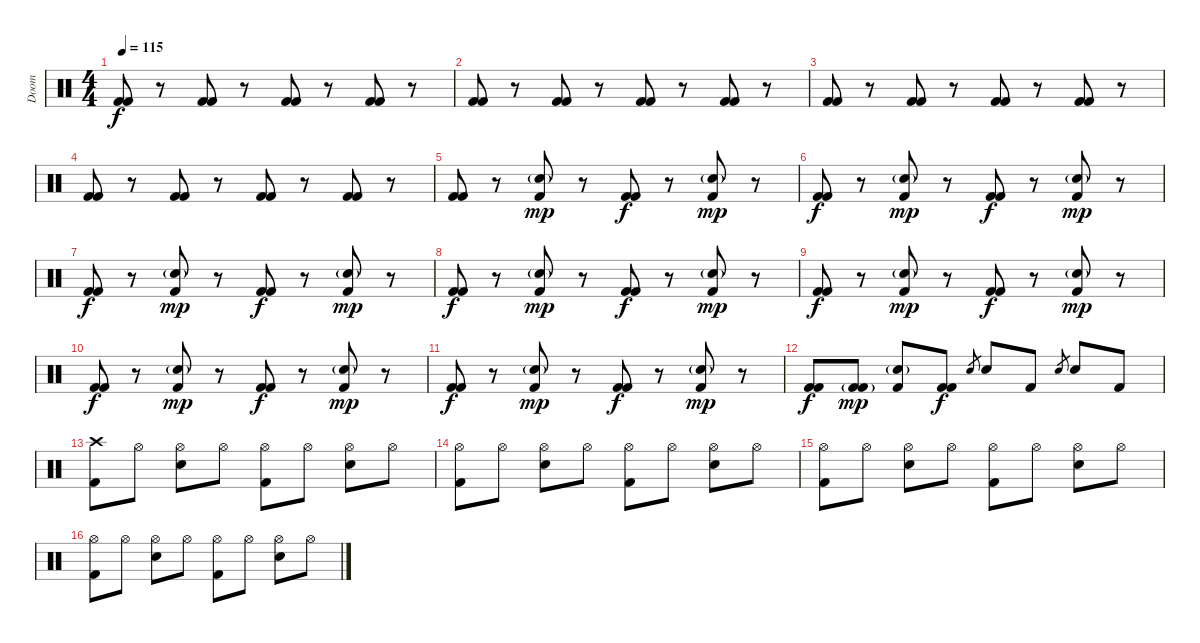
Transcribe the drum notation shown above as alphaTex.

\track ("Doom" "Doom") {instrument percussion}
\staff {score}
\articulation defaults
\ts (4 4)
\tempo 115
\clef neutral
\ks c
("Kick (hit) 2" "Kick (hit) 2").8{dy f} r.8 ("Kick (hit) 2" "Kick (hit) 2").8 r.8 ("Kick (hit) 2" "Kick (hit) 2").8 r.8 ("Kick (hit) 2" "Kick (hit) 2").8 r.8 |
("Kick (hit) 2" "Kick (hit) 2").8 r.8 ("Kick (hit) 2" "Kick (hit) 2").8 r.8 ("Kick (hit) 2" "Kick (hit) 2").8 r.8 ("Kick (hit) 2" "Kick (hit) 2").8 r.8 |
("Kick (hit) 2" "Kick (hit) 2").8 r.8 ("Kick (hit) 2" "Kick (hit) 2").8 r.8 ("Kick (hit) 2" "Kick (hit) 2").8 r.8 ("Kick (hit) 2" "Kick (hit) 2").8 r.8 |
("Kick (hit) 2" "Kick (hit) 2").8 r.8 ("Kick (hit) 2" "Kick (hit) 2").8 r.8 ("Kick (hit) 2" "Kick (hit) 2").8 r.8 ("Kick (hit) 2" "Kick (hit) 2").8 r.8 |
("Kick (hit) 2" "Kick (hit) 2").8 r.8 ("Electric Snare (hit)"{g} "Kick (hit) 2").8{dy mp} r.8 ("Kick (hit) 2" "Kick (hit) 2").8{dy f} r.8 ("Electric Snare (hit)"{g} "Kick (hit) 2").8{dy mp} r.8 |
("Kick (hit) 2" "Kick (hit) 2").8{dy f} r.8 ("Electric Snare (hit)"{g} "Kick (hit) 2").8{dy mp} r.8 ("Kick (hit) 2" "Kick (hit) 2").8{dy f} r.8 ("Electric Snare (hit)"{g} "Kick (hit) 2").8{dy mp} r.8 |
("Kick (hit) 2" "Kick (hit) 2").8{dy f} r.8 ("Electric Snare (hit)"{g} "Kick (hit) 2").8{dy mp} r.8 ("Kick (hit) 2" "Kick (hit) 2").8{dy f} r.8 ("Electric Snare (hit)"{g} "Kick (hit) 2").8{dy mp} r.8 |
("Kick (hit) 2" "Kick (hit) 2").8{dy f} r.8 ("Electric Snare (hit)"{g} "Kick (hit) 2").8{dy mp} r.8 ("Kick (hit) 2" "Kick (hit) 2").8{dy f} r.8 ("Electric Snare (hit)"{g} "Kick (hit) 2").8{dy mp} r.8 |
("Kick (hit) 2" "Kick (hit) 2").8{dy f} r.8 ("Electric Snare (hit)"{g} "Kick (hit) 2").8{dy mp} r.8 ("Kick (hit) 2" "Kick (hit) 2").8{dy f} r.8 ("Electric Snare (hit)"{g} "Kick (hit) 2").8{dy mp} r.8 |
("Kick (hit) 2" "Kick (hit) 2").8{dy f} r.8 ("Electric Snare (hit)"{g} "Kick (hit) 2").8{dy mp} r.8 ("Kick (hit) 2" "Kick (hit) 2").8{dy f} r.8 ("Electric Snare (hit)"{g} "Kick (hit) 2").8{dy mp} r.8 |
("Kick (hit) 2" "Kick (hit) 2").8{dy f} r.8 ("Electric Snare (hit)"{g} "Kick (hit) 2").8{dy mp} r.8 ("Kick (hit) 2" "Kick (hit) 2").8{dy f} r.8 ("Electric Snare (hit)"{g} "Kick (hit) 2").8{dy mp} r.8 |
("Kick (hit) 2" "Kick (hit) 2").8{dy f} ("Kick (hit) 2"{g} "Kick (hit) 2"{g}).8{dy mp} ("Electric Snare (hit)"{g} "Kick (hit) 2").8 ("Kick (hit) 2" "Kick (hit) 2").8{dy f} "Electric Snare (hit)".8{gr} "Electric Snare (hit)".8 "Kick (hit) 2".8 "Electric Snare (hit)".8{gr} "Electric Snare (hit)".8 "Kick (hit) 2".8 |
("Crash high (hit)" "Kick (hit) 2").8 "Hi-Hat (open)".8 ("Hi-Hat (open)" "Electric Snare (hit)").8 "Hi-Hat (open)".8 ("Hi-Hat (open)" "Kick (hit) 2").8 "Hi-Hat (open)".8 ("Hi-Hat (open)" "Electric Snare (hit)").8 "Hi-Hat (open)".8 |
("Hi-Hat (open)" "Kick (hit) 2").8 "Hi-Hat (open)".8 ("Hi-Hat (open)" "Electric Snare (hit)").8 "Hi-Hat (open)".8 ("Hi-Hat (open)" "Kick (hit) 2").8 "Hi-Hat (open)".8 ("Hi-Hat (open)" "Electric Snare (hit)").8 "Hi-Hat (open)".8 |
("Hi-Hat (open)" "Kick (hit) 2").8 "Hi-Hat (open)".8 ("Hi-Hat (open)" "Electric Snare (hit)").8 "Hi-Hat (open)".8 ("Hi-Hat (open)" "Kick (hit) 2").8 "Hi-Hat (open)".8 ("Hi-Hat (open)" "Electric Snare (hit)").8 "Hi-Hat (open)".8 |
("Hi-Hat (open)" "Kick (hit) 2").8 "Hi-Hat (open)".8 ("Hi-Hat (open)" "Electric Snare (hit)").8 "Hi-Hat (open)".8 ("Hi-Hat (open)" "Kick (hit) 2").8 "Hi-Hat (open)".8 ("Hi-Hat (open)" "Electric Snare (hit)").8 "Hi-Hat (open)".8
